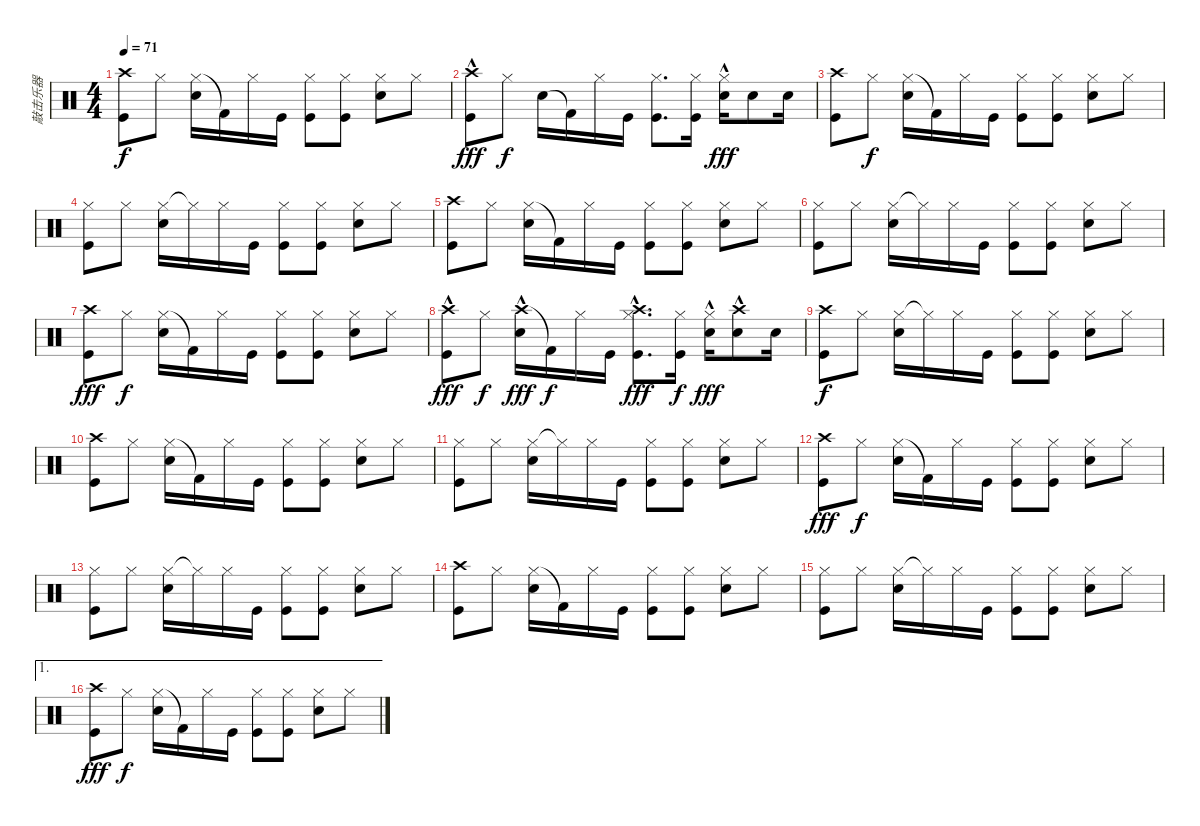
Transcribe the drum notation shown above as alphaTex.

\track ("敲击乐器" "敲击乐器") {instrument percussion}
\staff {score}
\articulation defaults
\ts (4 4)
\tempo 71
\clef neutral
\ks c
("Crash high (hit)" "Kick (hit)").8{dy f} "Hi-Hat (closed)".8 ("Hi-Hat (closed)" "Electric Snare (hit)").16 "Kick (hit) 2"{t}.16 "Hi-Hat (closed)".16 "Kick (hit)".16 ("Hi-Hat (closed)" "Kick (hit)").8 ("Hi-Hat (closed)" "Kick (hit)").8 ("Hi-Hat (closed)" "Electric Snare (hit)").8 "Hi-Hat (closed)".8 |
("Crash high (hit)"{hac} "Kick (hit)").8{dy fff} "Hi-Hat (closed)".8{dy f} "Electric Snare (hit)".16 "Kick (hit) 2"{t}.16 "Hi-Hat (closed)".16 "Kick (hit)".16 ("Hi-Hat (closed)" "Kick (hit)").8{d} ("Hi-Hat (closed)" "Kick (hit)").16 ("Hi-Hat (closed)" "Electric Snare (hit)"{hac}).16{dy fff} "Electric Snare (hit)".8 "Electric Snare (hit)".16 |
("Crash high (hit)" "Kick (hit)").8 "Hi-Hat (closed)".8{dy f} ("Hi-Hat (closed)" "Electric Snare (hit)").16 "Kick (hit) 2"{t}.16 "Hi-Hat (closed)".16 "Kick (hit)".16 ("Hi-Hat (closed)" "Kick (hit)").8 ("Hi-Hat (closed)" "Kick (hit)").8 ("Hi-Hat (closed)" "Electric Snare (hit)").8 "Hi-Hat (closed)".8 |
("Hi-Hat (closed)" "Kick (hit)").8 "Hi-Hat (closed)".8 ("Hi-Hat (closed)" "Electric Snare (hit)").16 "Hi-Hat (closed)"{t}.16 "Hi-Hat (closed)".16 "Kick (hit)".16 ("Hi-Hat (closed)" "Kick (hit)").8 ("Hi-Hat (closed)" "Kick (hit)").8 ("Hi-Hat (closed)" "Electric Snare (hit)").8 "Hi-Hat (closed)".8 |
("Crash high (hit)" "Kick (hit)").8 "Hi-Hat (closed)".8 ("Hi-Hat (closed)" "Electric Snare (hit)").16 "Kick (hit) 2"{t}.16 "Hi-Hat (closed)".16 "Kick (hit)".16 ("Hi-Hat (closed)" "Kick (hit)").8 ("Hi-Hat (closed)" "Kick (hit)").8 ("Hi-Hat (closed)" "Electric Snare (hit)").8 "Hi-Hat (closed)".8 |
("Hi-Hat (closed)" "Kick (hit)").8 "Hi-Hat (closed)".8 ("Hi-Hat (closed)" "Electric Snare (hit)").16 "Hi-Hat (closed)"{t}.16 "Hi-Hat (closed)".16 "Kick (hit)".16 ("Hi-Hat (closed)" "Kick (hit)").8 ("Hi-Hat (closed)" "Kick (hit)").8 ("Hi-Hat (closed)" "Electric Snare (hit)").8 "Hi-Hat (closed)".8 |
("Crash high (hit)" "Kick (hit)").8{dy fff} "Hi-Hat (closed)".8{dy f} ("Hi-Hat (closed)" "Electric Snare (hit)").16 "Kick (hit) 2"{t}.16 "Hi-Hat (closed)".16 "Kick (hit)".16 ("Hi-Hat (closed)" "Kick (hit)").8 ("Hi-Hat (closed)" "Kick (hit)").8 ("Hi-Hat (closed)" "Electric Snare (hit)").8 "Hi-Hat (closed)".8 |
("Crash high (hit)"{hac} "Kick (hit)").8{dy fff} "Hi-Hat (closed)".8{dy f} ("Crash high (hit)"{hac} "Electric Snare (hit)").16{dy fff} "Kick (hit) 2"{t}.16{dy f} "Hi-Hat (closed)".16 "Kick (hit)".16 ("Crash high (hit)"{hac} "Hi-Hat (closed)" "Kick (hit)").8{d dy fff} ("Hi-Hat (closed)" "Kick (hit)").16{dy f} ("Hi-Hat (closed)" "Electric Snare (hit)"{hac}).16{dy fff} ("Crash high (hit)"{hac} "Electric Snare (hit)").8 "Electric Snare (hit)".16 |
("Crash high (hit)" "Kick (hit)").8{dy f} "Hi-Hat (closed)".8 ("Hi-Hat (closed)" "Electric Snare (hit)").16 "Hi-Hat (closed)"{t}.16 "Hi-Hat (closed)".16 "Kick (hit)".16 ("Hi-Hat (closed)" "Kick (hit)").8 ("Hi-Hat (closed)" "Kick (hit)").8 ("Hi-Hat (closed)" "Electric Snare (hit)").8 "Hi-Hat (closed)".8 |
("Crash high (hit)" "Kick (hit)").8 "Hi-Hat (closed)".8 ("Hi-Hat (closed)" "Electric Snare (hit)").16 "Kick (hit) 2"{t}.16 "Hi-Hat (closed)".16 "Kick (hit)".16 ("Hi-Hat (closed)" "Kick (hit)").8 ("Hi-Hat (closed)" "Kick (hit)").8 ("Hi-Hat (closed)" "Electric Snare (hit)").8 "Hi-Hat (closed)".8 |
("Hi-Hat (closed)" "Kick (hit)").8 "Hi-Hat (closed)".8 ("Hi-Hat (closed)" "Electric Snare (hit)").16 "Hi-Hat (closed)"{t}.16 "Hi-Hat (closed)".16 "Kick (hit)".16 ("Hi-Hat (closed)" "Kick (hit)").8 ("Hi-Hat (closed)" "Kick (hit)").8 ("Hi-Hat (closed)" "Electric Snare (hit)").8 "Hi-Hat (closed)".8 |
("Crash high (hit)" "Kick (hit)").8{dy fff} "Hi-Hat (closed)".8{dy f} ("Hi-Hat (closed)" "Electric Snare (hit)").16 "Kick (hit) 2"{t}.16 "Hi-Hat (closed)".16 "Kick (hit)".16 ("Hi-Hat (closed)" "Kick (hit)").8 ("Hi-Hat (closed)" "Kick (hit)").8 ("Hi-Hat (closed)" "Electric Snare (hit)").8 "Hi-Hat (closed)".8 |
("Hi-Hat (closed)" "Kick (hit)").8 "Hi-Hat (closed)".8 ("Hi-Hat (closed)" "Electric Snare (hit)").16 "Hi-Hat (closed)"{t}.16 "Hi-Hat (closed)".16 "Kick (hit)".16 ("Hi-Hat (closed)" "Kick (hit)").8 ("Hi-Hat (closed)" "Kick (hit)").8 ("Hi-Hat (closed)" "Electric Snare (hit)").8 "Hi-Hat (closed)".8 |
("Crash high (hit)" "Kick (hit)").8 "Hi-Hat (closed)".8 ("Hi-Hat (closed)" "Electric Snare (hit)").16 "Kick (hit) 2"{t}.16 "Hi-Hat (closed)".16 "Kick (hit)".16 ("Hi-Hat (closed)" "Kick (hit)").8 ("Hi-Hat (closed)" "Kick (hit)").8 ("Hi-Hat (closed)" "Electric Snare (hit)").8 "Hi-Hat (closed)".8 |
("Hi-Hat (closed)" "Kick (hit)").8 "Hi-Hat (closed)".8 ("Hi-Hat (closed)" "Electric Snare (hit)").16 "Hi-Hat (closed)"{t}.16 "Hi-Hat (closed)".16 "Kick (hit)".16 ("Hi-Hat (closed)" "Kick (hit)").8 ("Hi-Hat (closed)" "Kick (hit)").8 ("Hi-Hat (closed)" "Electric Snare (hit)").8 "Hi-Hat (closed)".8 |
\ae 1
("Crash high (hit)" "Kick (hit)").8{dy fff} "Hi-Hat (closed)".8{dy f} ("Hi-Hat (closed)" "Electric Snare (hit)").16 "Kick (hit) 2"{t}.16 "Hi-Hat (closed)".16 "Kick (hit)".16 ("Hi-Hat (closed)" "Kick (hit)").8 ("Hi-Hat (closed)" "Kick (hit)").8 ("Hi-Hat (closed)" "Electric Snare (hit)").8 "Hi-Hat (closed)".8
